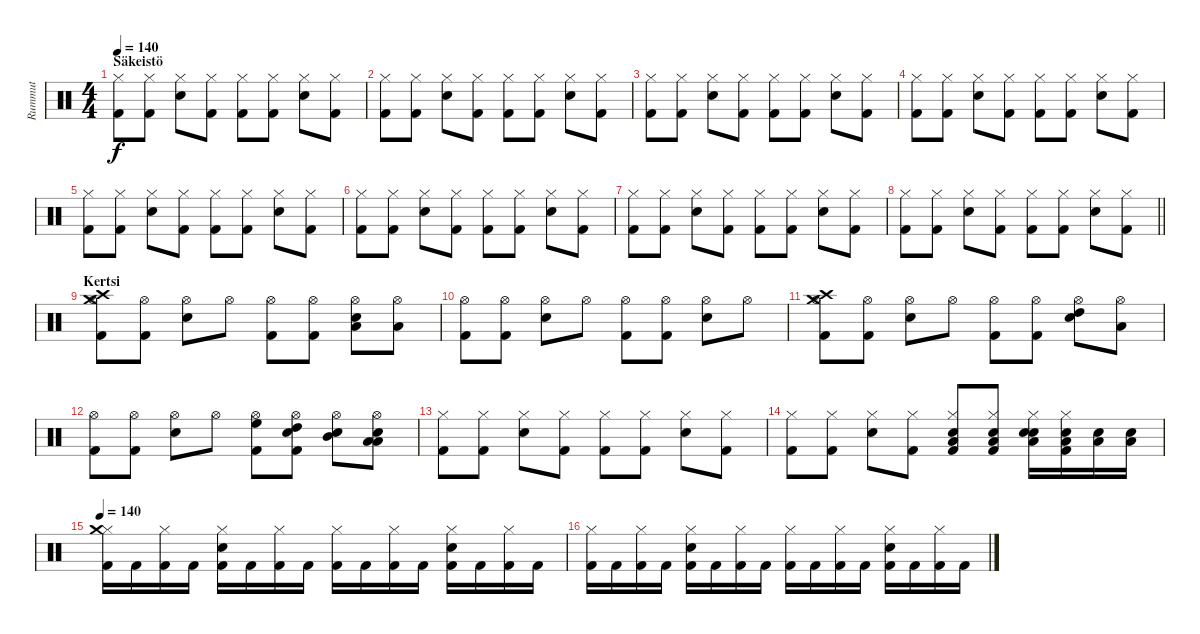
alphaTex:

\track ("Rummut" "Rummut") {instrument percussion}
\staff {score}
\articulation defaults
\ts (4 4)
\section ("" "Säkeistö")
\tempo 140
\clef neutral
\ks c
("Kick (hit) 2" "Hi-Hat (closed)").8{dy f} ("Kick (hit) 2" "Hi-Hat (closed)").8 ("Snare (hit) 2" "Hi-Hat (closed)").8 ("Kick (hit) 2" "Hi-Hat (closed)").8 ("Kick (hit) 2" "Hi-Hat (closed)").8 ("Kick (hit) 2" "Hi-Hat (closed)").8 ("Snare (hit) 2" "Hi-Hat (closed)").8 ("Kick (hit) 2" "Hi-Hat (closed)").8 |
("Kick (hit) 2" "Hi-Hat (closed)").8 ("Kick (hit) 2" "Hi-Hat (closed)").8 ("Snare (hit) 2" "Hi-Hat (closed)").8 ("Kick (hit) 2" "Hi-Hat (closed)").8 ("Kick (hit) 2" "Hi-Hat (closed)").8 ("Kick (hit) 2" "Hi-Hat (closed)").8 ("Snare (hit) 2" "Hi-Hat (closed)").8 ("Kick (hit) 2" "Hi-Hat (closed)").8 |
("Kick (hit) 2" "Hi-Hat (closed)").8 ("Kick (hit) 2" "Hi-Hat (closed)").8 ("Snare (hit) 2" "Hi-Hat (closed)").8 ("Kick (hit) 2" "Hi-Hat (closed)").8 ("Kick (hit) 2" "Hi-Hat (closed)").8 ("Kick (hit) 2" "Hi-Hat (closed)").8 ("Snare (hit) 2" "Hi-Hat (closed)").8 ("Kick (hit) 2" "Hi-Hat (closed)").8 |
("Kick (hit) 2" "Hi-Hat (closed)").8 ("Kick (hit) 2" "Hi-Hat (closed)").8 ("Snare (hit) 2" "Hi-Hat (closed)").8 ("Kick (hit) 2" "Hi-Hat (closed)").8 ("Kick (hit) 2" "Hi-Hat (closed)").8 ("Kick (hit) 2" "Hi-Hat (closed)").8 ("Snare (hit) 2" "Hi-Hat (closed)").8 ("Kick (hit) 2" "Hi-Hat (closed)").8 |
("Kick (hit) 2" "Hi-Hat (closed)").8 ("Kick (hit) 2" "Hi-Hat (closed)").8 ("Snare (hit) 2" "Hi-Hat (closed)").8 ("Kick (hit) 2" "Hi-Hat (closed)").8 ("Kick (hit) 2" "Hi-Hat (closed)").8 ("Kick (hit) 2" "Hi-Hat (closed)").8 ("Snare (hit) 2" "Hi-Hat (closed)").8 ("Kick (hit) 2" "Hi-Hat (closed)").8 |
("Kick (hit) 2" "Hi-Hat (closed)").8 ("Kick (hit) 2" "Hi-Hat (closed)").8 ("Snare (hit) 2" "Hi-Hat (closed)").8 ("Kick (hit) 2" "Hi-Hat (closed)").8 ("Kick (hit) 2" "Hi-Hat (closed)").8 ("Kick (hit) 2" "Hi-Hat (closed)").8 ("Snare (hit) 2" "Hi-Hat (closed)").8 ("Kick (hit) 2" "Hi-Hat (closed)").8 |
("Kick (hit) 2" "Hi-Hat (closed)").8 ("Kick (hit) 2" "Hi-Hat (closed)").8 ("Snare (hit) 2" "Hi-Hat (closed)").8 ("Kick (hit) 2" "Hi-Hat (closed)").8 ("Kick (hit) 2" "Hi-Hat (closed)").8 ("Kick (hit) 2" "Hi-Hat (closed)").8 ("Snare (hit) 2" "Hi-Hat (closed)").8 ("Kick (hit) 2" "Hi-Hat (closed)").8 |
\barLineRight lightlight
("Kick (hit) 2" "Hi-Hat (closed)").8 ("Kick (hit) 2" "Hi-Hat (closed)").8 ("Snare (hit) 2" "Hi-Hat (closed)").8 ("Kick (hit) 2" "Hi-Hat (closed)").8 ("Kick (hit) 2" "Hi-Hat (closed)").8 ("Kick (hit) 2" "Hi-Hat (closed)").8 ("Snare (hit) 2" "Hi-Hat (closed)").8 ("Kick (hit) 2" "Hi-Hat (closed)").8 |
\section ("" "Kertsi")
("Kick (hit) 2" "Hi-Hat (open)" "Crash high (hit)" "Crash medium (hit)").8 ("Kick (hit) 2" "Hi-Hat (open)").8 ("Snare (hit) 2" "Hi-Hat (open)").8 "Hi-Hat (open)".8 ("Kick (hit) 2" "Hi-Hat (open)").8 ("Kick (hit) 2" "Hi-Hat (open)").8 ("Snare (hit) 2" "Hi-Hat (open)" "Low Tom (hit)").8 ("Hi-Hat (open)" "Low Tom (hit)").8 |
("Kick (hit) 2" "Hi-Hat (open)").8 ("Kick (hit) 2" "Hi-Hat (open)").8 ("Snare (hit) 2" "Hi-Hat (open)").8 "Hi-Hat (open)".8 ("Kick (hit) 2" "Hi-Hat (open)").8 ("Kick (hit) 2" "Hi-Hat (open)").8 ("Snare (hit) 2" "Hi-Hat (open)").8 "Hi-Hat (open)".8 |
("Kick (hit) 2" "Hi-Hat (open)" "Crash high (hit)" "Crash medium (hit)").8 ("Kick (hit) 2" "Hi-Hat (open)").8 ("Snare (hit) 2" "Hi-Hat (open)").8 "Hi-Hat (open)".8 ("Kick (hit) 2" "Hi-Hat (open)").8 ("Kick (hit) 2" "Hi-Hat (open)").8 ("Snare (hit) 2" "Hi-Hat (open)" "High Tom (hit)").8 ("Hi-Hat (open)" "Low Tom (hit)").8 |
("Kick (hit) 2" "Hi-Hat (open)").8 ("Kick (hit) 2" "Hi-Hat (open)").8 ("Snare (hit) 2" "Hi-Hat (open)").8 "Hi-Hat (open)".8 ("Kick (hit) 2" "Hi-Hat (open)" "High Floor Tom (hit)").8 ("Kick (hit) 2" "Hi-Hat (open)" "Snare (hit) 2" "High Tom (hit)").8 ("Snare (hit) 2" "Hi-Hat (open)" "Mid Tom (hit)").8 ("Hi-Hat (open)" "Snare (hit) 2" "Low Tom (hit)" "Low Floor Tom (hit)").8 |
("Kick (hit) 2" "Hi-Hat (closed)").8 ("Kick (hit) 2" "Hi-Hat (closed)").8 ("Snare (hit) 2" "Hi-Hat (closed)").8 ("Kick (hit) 2" "Hi-Hat (closed)").8 ("Kick (hit) 2" "Hi-Hat (closed)").8 ("Kick (hit) 2" "Hi-Hat (closed)").8 ("Snare (hit) 2" "Hi-Hat (closed)").8 ("Kick (hit) 2" "Hi-Hat (closed)").8 |
("Kick (hit) 2" "Hi-Hat (closed)").8 ("Kick (hit) 2" "Hi-Hat (closed)").8 ("Snare (hit) 2" "Hi-Hat (closed)").8 ("Kick (hit) 2" "Hi-Hat (closed)").8 ("Kick (hit) 2" "Hi-Hat (closed)" "Low Floor Tom (hit)" "Snare (hit) 2").8 ("Kick (hit) 2" "Hi-Hat (closed)" "Low Floor Tom (hit)" "Snare (hit) 2").8 ("Snare (hit) 2" "Hi-Hat (closed)" "Low Floor Tom (hit)" "Snare (hit) 2").16 ("Kick (hit) 2" "Hi-Hat (closed)" "Low Floor Tom (hit)" "Snare (hit) 2").16 ("Low Floor Tom (hit)" "Snare (hit) 2").16 ("Low Floor Tom (hit)" "Snare (hit) 2").16 |
\tempo 140
("Kick (hit) 2" "Hi-Hat (closed)" "Crash medium (hit)").16 "Kick (hit) 2".16 ("Kick (hit) 2" "Hi-Hat (closed)").16 "Kick (hit) 2".16 ("Kick (hit) 2" "Snare (hit) 2" "Hi-Hat (closed)").16 "Kick (hit) 2".16 ("Kick (hit) 2" "Hi-Hat (closed)").16 "Kick (hit) 2".16 ("Kick (hit) 2" "Hi-Hat (closed)").16 "Kick (hit) 2".16 ("Kick (hit) 2" "Hi-Hat (closed)").16 "Kick (hit) 2".16 ("Kick (hit) 2" "Snare (hit) 2" "Hi-Hat (closed)").16 "Kick (hit) 2".16 ("Kick (hit) 2" "Hi-Hat (closed)").16 "Kick (hit) 2".16 |
("Kick (hit) 2" "Hi-Hat (closed)").16 "Kick (hit) 2".16 ("Kick (hit) 2" "Hi-Hat (closed)").16 "Kick (hit) 2".16 ("Kick (hit) 2" "Snare (hit) 2" "Hi-Hat (closed)").16 "Kick (hit) 2".16 ("Kick (hit) 2" "Hi-Hat (closed)").16 "Kick (hit) 2".16 ("Kick (hit) 2" "Hi-Hat (closed)").16 "Kick (hit) 2".16 ("Kick (hit) 2" "Hi-Hat (closed)").16 "Kick (hit) 2".16 ("Kick (hit) 2" "Snare (hit) 2" "Hi-Hat (closed)").16 "Kick (hit) 2".16 ("Kick (hit) 2" "Hi-Hat (closed)").16 "Kick (hit) 2".16
